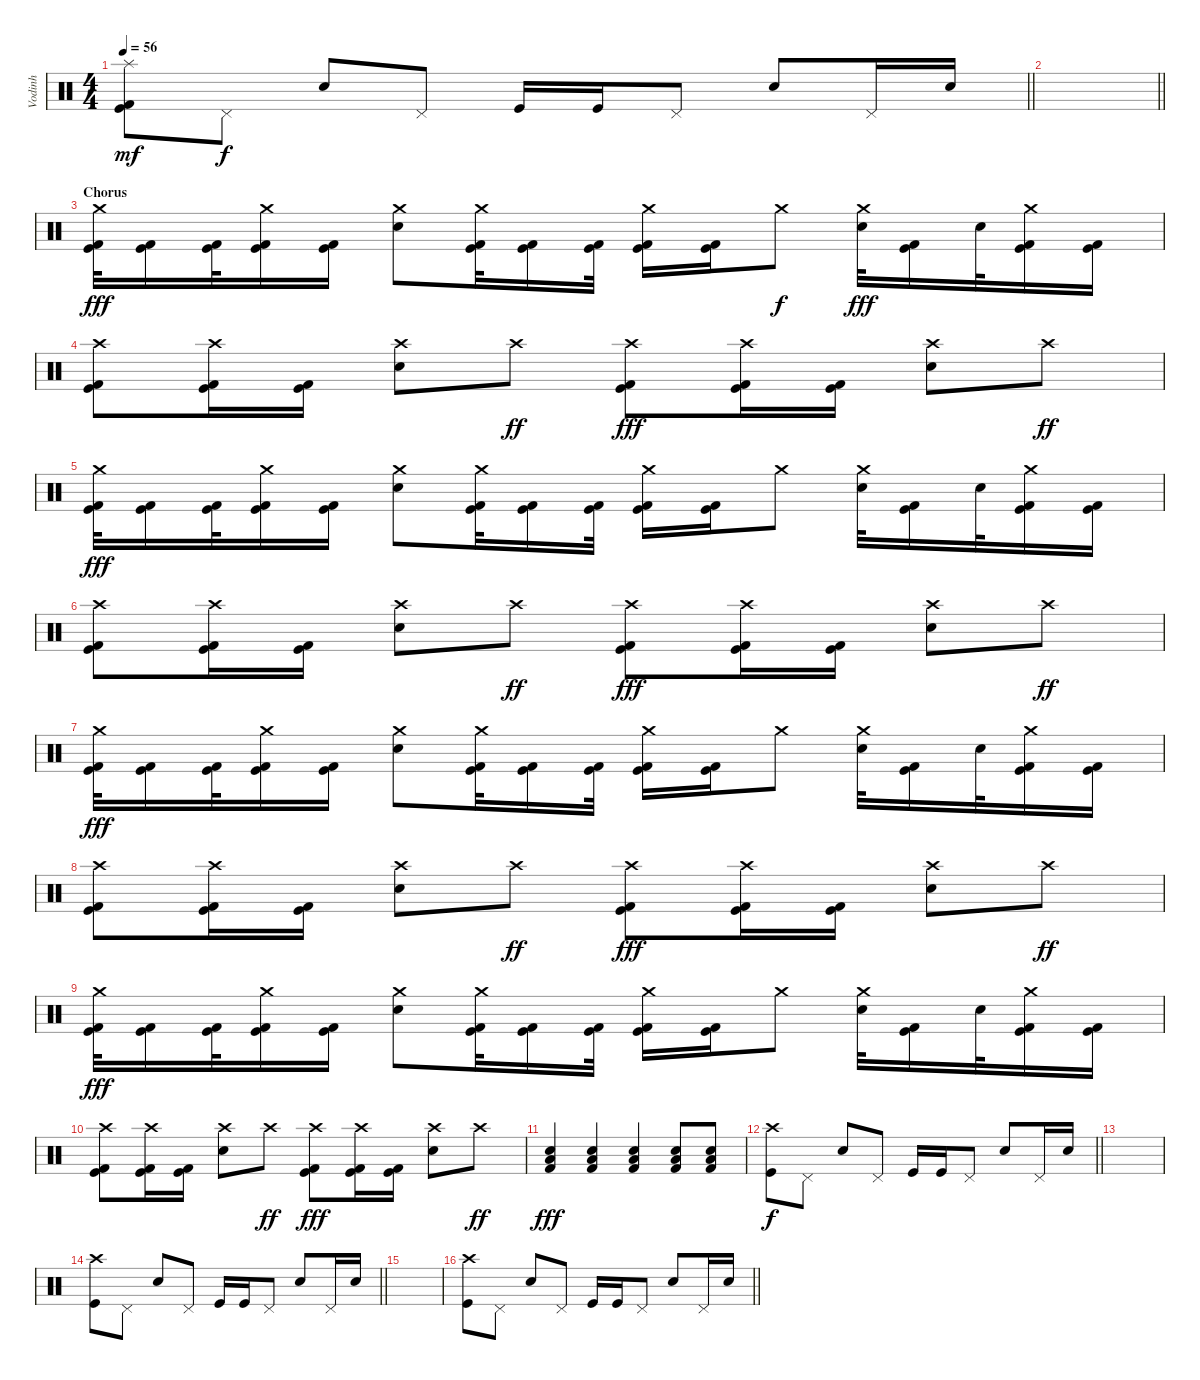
\track ("Vodinh" "Vodinh") {instrument percussion}
\staff {score}
\articulation defaults
\ts (4 4)
\tempo 56
\clef neutral
\barLineRight lightlight
\ks c
("Splash (hit)" "Kick (hit)" "Kick (hit) 2").8{dy mf} "Pedal Hi-Hat (hit)".8{dy f} "Snare (hit) 2".8 "Pedal Hi-Hat (hit)".8 "Kick (hit)".16 "Kick (hit)".16 "Pedal Hi-Hat (hit)".8 "Snare (hit) 2".8 "Pedal Hi-Hat (hit)".16 "Electric Snare (hit)".16 |
\barLineRight lightlight
|
\section ("" "Chorus")
("Crash medium (hit)" "Kick (hit)" "Kick (hit) 2").32{dy fff} ("Kick (hit)" "Kick (hit) 2").16 ("Kick (hit)" "Kick (hit) 2").32 ("Crash medium (hit)" "Kick (hit)" "Kick (hit) 2").16 ("Kick (hit)" "Kick (hit) 2").16 ("Crash medium (hit)" "Electric Snare (hit)").8 ("Crash medium (hit)" "Kick (hit)" "Kick (hit) 2").32 ("Kick (hit)" "Kick (hit) 2").16 ("Kick (hit)" "Kick (hit) 2").32 ("Crash medium (hit)" "Kick (hit)" "Kick (hit) 2").16 ("Kick (hit)" "Kick (hit) 2").16 "Crash medium (hit)".8{dy f} ("Crash medium (hit)" "Electric Snare (hit)").32{dy fff} ("Kick (hit)" "Kick (hit) 2").16 "Electric Snare (hit)".32 ("Crash medium (hit)" "Kick (hit)" "Kick (hit) 2").16 ("Kick (hit)" "Kick (hit) 2").16 |
("Crash high (hit)" "Kick (hit)" "Kick (hit) 2").8 ("Crash high (hit)" "Kick (hit)" "Kick (hit) 2").16 ("Kick (hit)" "Kick (hit) 2").16 ("Crash high (hit)" "Electric Snare (hit)").8 "Crash high (hit)".8{dy ff} ("Crash high (hit)" "Kick (hit)" "Kick (hit) 2").8{dy fff} ("Crash high (hit)" "Kick (hit)" "Kick (hit) 2").16 ("Kick (hit)" "Kick (hit) 2").16 ("Crash high (hit)" "Electric Snare (hit)").8 "Crash high (hit)".8{dy ff} |
("Crash medium (hit)" "Kick (hit)" "Kick (hit) 2").32{dy fff} ("Kick (hit)" "Kick (hit) 2").16 ("Kick (hit)" "Kick (hit) 2").32 ("Crash medium (hit)" "Kick (hit)" "Kick (hit) 2").16 ("Kick (hit)" "Kick (hit) 2").16 ("Crash medium (hit)" "Electric Snare (hit)").8 ("Crash medium (hit)" "Kick (hit)" "Kick (hit) 2").32 ("Kick (hit)" "Kick (hit) 2").16 ("Kick (hit)" "Kick (hit) 2").32 ("Crash medium (hit)" "Kick (hit)" "Kick (hit) 2").16 ("Kick (hit)" "Kick (hit) 2").16 "Crash medium (hit)".8 ("Crash medium (hit)" "Electric Snare (hit)").32 ("Kick (hit)" "Kick (hit) 2").16 "Electric Snare (hit)".32 ("Crash medium (hit)" "Kick (hit)" "Kick (hit) 2").16 ("Kick (hit)" "Kick (hit) 2").16 |
("Crash high (hit)" "Kick (hit)" "Kick (hit) 2").8 ("Crash high (hit)" "Kick (hit)" "Kick (hit) 2").16 ("Kick (hit)" "Kick (hit) 2").16 ("Crash high (hit)" "Electric Snare (hit)").8 "Crash high (hit)".8{dy ff} ("Crash high (hit)" "Kick (hit)" "Kick (hit) 2").8{dy fff} ("Crash high (hit)" "Kick (hit)" "Kick (hit) 2").16 ("Kick (hit)" "Kick (hit) 2").16 ("Crash high (hit)" "Electric Snare (hit)").8 "Crash high (hit)".8{dy ff} |
("Crash medium (hit)" "Kick (hit)" "Kick (hit) 2").32{dy fff} ("Kick (hit)" "Kick (hit) 2").16 ("Kick (hit)" "Kick (hit) 2").32 ("Crash medium (hit)" "Kick (hit)" "Kick (hit) 2").16 ("Kick (hit)" "Kick (hit) 2").16 ("Crash medium (hit)" "Electric Snare (hit)").8 ("Crash medium (hit)" "Kick (hit)" "Kick (hit) 2").32 ("Kick (hit)" "Kick (hit) 2").16 ("Kick (hit)" "Kick (hit) 2").32 ("Crash medium (hit)" "Kick (hit)" "Kick (hit) 2").16 ("Kick (hit)" "Kick (hit) 2").16 "Crash medium (hit)".8 ("Crash medium (hit)" "Electric Snare (hit)").32 ("Kick (hit)" "Kick (hit) 2").16 "Electric Snare (hit)".32 ("Crash medium (hit)" "Kick (hit)" "Kick (hit) 2").16 ("Kick (hit)" "Kick (hit) 2").16 |
("Crash high (hit)" "Kick (hit)" "Kick (hit) 2").8 ("Crash high (hit)" "Kick (hit)" "Kick (hit) 2").16 ("Kick (hit)" "Kick (hit) 2").16 ("Crash high (hit)" "Electric Snare (hit)").8 "Crash high (hit)".8{dy ff} ("Crash high (hit)" "Kick (hit)" "Kick (hit) 2").8{dy fff} ("Crash high (hit)" "Kick (hit)" "Kick (hit) 2").16 ("Kick (hit)" "Kick (hit) 2").16 ("Crash high (hit)" "Electric Snare (hit)").8 "Crash high (hit)".8{dy ff} |
("Crash medium (hit)" "Kick (hit)" "Kick (hit) 2").32{dy fff} ("Kick (hit)" "Kick (hit) 2").16 ("Kick (hit)" "Kick (hit) 2").32 ("Crash medium (hit)" "Kick (hit)" "Kick (hit) 2").16 ("Kick (hit)" "Kick (hit) 2").16 ("Crash medium (hit)" "Electric Snare (hit)").8 ("Crash medium (hit)" "Kick (hit)" "Kick (hit) 2").32 ("Kick (hit)" "Kick (hit) 2").16 ("Kick (hit)" "Kick (hit) 2").32 ("Crash medium (hit)" "Kick (hit)" "Kick (hit) 2").16 ("Kick (hit)" "Kick (hit) 2").16 "Crash medium (hit)".8 ("Crash medium (hit)" "Electric Snare (hit)").32 ("Kick (hit)" "Kick (hit) 2").16 "Electric Snare (hit)".32 ("Crash medium (hit)" "Kick (hit)" "Kick (hit) 2").16 ("Kick (hit)" "Kick (hit) 2").16 |
("Crash high (hit)" "Kick (hit)" "Kick (hit) 2").8 ("Crash high (hit)" "Kick (hit)" "Kick (hit) 2").16 ("Kick (hit)" "Kick (hit) 2").16 ("Crash high (hit)" "Electric Snare (hit)").8 "Crash high (hit)".8{dy ff} ("Crash high (hit)" "Kick (hit)" "Kick (hit) 2").8{dy fff} ("Crash high (hit)" "Kick (hit)" "Kick (hit) 2").16 ("Kick (hit)" "Kick (hit) 2").16 ("Crash high (hit)" "Electric Snare (hit)").8 "Crash high (hit)".8{dy ff} |
("Electric Snare (hit)" "Low Floor Tom (hit)" "Kick (hit) 2").4{dy fff} ("Electric Snare (hit)" "Low Floor Tom (hit)" "Kick (hit) 2").4 ("Electric Snare (hit)" "Low Floor Tom (hit)" "Kick (hit) 2").4 ("Electric Snare (hit)" "Low Floor Tom (hit)" "Kick (hit) 2").8 ("Electric Snare (hit)" "Low Floor Tom (hit)" "Kick (hit) 2").8 |
\barLineRight lightlight
("Kick (hit)" "Crash high (hit)").8{dy f} "Pedal Hi-Hat (hit)".8 "Snare (hit) 2".8 "Pedal Hi-Hat (hit)".8 "Kick (hit)".16 "Kick (hit)".16 "Pedal Hi-Hat (hit)".8 "Snare (hit) 2".8 "Pedal Hi-Hat (hit)".16 "Electric Snare (hit)".16 |
|
\barLineRight lightlight
("Kick (hit)" "Crash high (hit)").8 "Pedal Hi-Hat (hit)".8 "Snare (hit) 2".8 "Pedal Hi-Hat (hit)".8 "Kick (hit)".16 "Kick (hit)".16 "Pedal Hi-Hat (hit)".8 "Snare (hit) 2".8 "Pedal Hi-Hat (hit)".16 "Electric Snare (hit)".16 |
|
\barLineRight lightlight
("Kick (hit)" "Crash high (hit)").8 "Pedal Hi-Hat (hit)".8 "Snare (hit) 2".8 "Pedal Hi-Hat (hit)".8 "Kick (hit)".16 "Kick (hit)".16 "Pedal Hi-Hat (hit)".8 "Snare (hit) 2".8 "Pedal Hi-Hat (hit)".16 "Electric Snare (hit)".16
